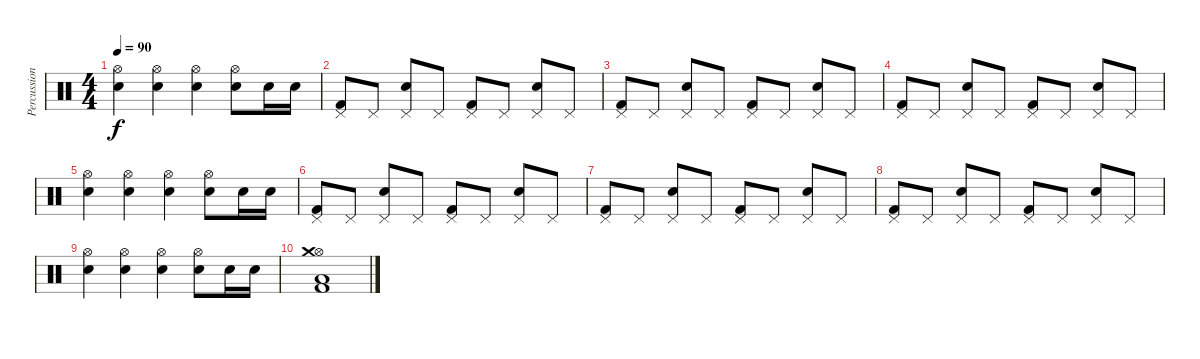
\track ("Percussion" "Percussion") {instrument percussion}
\staff {score}
\articulation defaults
\ts (4 4)
\tempo 90
\clef neutral
\ks c
("Hi-Hat (open)" "Electric Snare (hit)").4{dy f} ("Hi-Hat (open)" "Electric Snare (hit)").4 ("Hi-Hat (open)" "Electric Snare (hit)").4 ("Hi-Hat (open)" "Electric Snare (hit)").8 "Electric Snare (hit)".16 "Electric Snare (hit)".16 |
("Pedal Hi-Hat (hit)" "Kick (hit) 2").8 "Pedal Hi-Hat (hit)".8 ("Pedal Hi-Hat (hit)" "Electric Snare (hit)").8 "Pedal Hi-Hat (hit)".8 ("Pedal Hi-Hat (hit)" "Kick (hit) 2").8 "Pedal Hi-Hat (hit)".8 ("Pedal Hi-Hat (hit)" "Electric Snare (hit)").8 "Pedal Hi-Hat (hit)".8 |
("Pedal Hi-Hat (hit)" "Kick (hit) 2").8 "Pedal Hi-Hat (hit)".8 ("Pedal Hi-Hat (hit)" "Electric Snare (hit)").8 "Pedal Hi-Hat (hit)".8 ("Pedal Hi-Hat (hit)" "Kick (hit) 2").8 "Pedal Hi-Hat (hit)".8 ("Pedal Hi-Hat (hit)" "Electric Snare (hit)").8 "Pedal Hi-Hat (hit)".8 |
("Pedal Hi-Hat (hit)" "Kick (hit) 2").8 "Pedal Hi-Hat (hit)".8 ("Pedal Hi-Hat (hit)" "Electric Snare (hit)").8 "Pedal Hi-Hat (hit)".8 ("Pedal Hi-Hat (hit)" "Kick (hit) 2").8 "Pedal Hi-Hat (hit)".8 ("Pedal Hi-Hat (hit)" "Electric Snare (hit)").8 "Pedal Hi-Hat (hit)".8 |
("Hi-Hat (open)" "Electric Snare (hit)").4 ("Hi-Hat (open)" "Electric Snare (hit)").4 ("Hi-Hat (open)" "Electric Snare (hit)").4 ("Hi-Hat (open)" "Electric Snare (hit)").8 "Electric Snare (hit)".16 "Electric Snare (hit)".16 |
("Pedal Hi-Hat (hit)" "Kick (hit) 2").8 "Pedal Hi-Hat (hit)".8 ("Pedal Hi-Hat (hit)" "Electric Snare (hit)").8 "Pedal Hi-Hat (hit)".8 ("Pedal Hi-Hat (hit)" "Kick (hit) 2").8 "Pedal Hi-Hat (hit)".8 ("Pedal Hi-Hat (hit)" "Electric Snare (hit)").8 "Pedal Hi-Hat (hit)".8 |
("Pedal Hi-Hat (hit)" "Kick (hit) 2").8 "Pedal Hi-Hat (hit)".8 ("Pedal Hi-Hat (hit)" "Electric Snare (hit)").8 "Pedal Hi-Hat (hit)".8 ("Pedal Hi-Hat (hit)" "Kick (hit) 2").8 "Pedal Hi-Hat (hit)".8 ("Pedal Hi-Hat (hit)" "Electric Snare (hit)").8 "Pedal Hi-Hat (hit)".8 |
("Pedal Hi-Hat (hit)" "Kick (hit) 2").8 "Pedal Hi-Hat (hit)".8 ("Pedal Hi-Hat (hit)" "Electric Snare (hit)").8 "Pedal Hi-Hat (hit)".8 ("Pedal Hi-Hat (hit)" "Kick (hit) 2").8 "Pedal Hi-Hat (hit)".8 ("Pedal Hi-Hat (hit)" "Electric Snare (hit)").8 "Pedal Hi-Hat (hit)".8 |
("Hi-Hat (open)" "Electric Snare (hit)").4 ("Hi-Hat (open)" "Electric Snare (hit)").4 ("Hi-Hat (open)" "Electric Snare (hit)").4 ("Hi-Hat (open)" "Electric Snare (hit)").8 "Electric Snare (hit)".16 "Electric Snare (hit)".16 |
("Hi-Hat (open)" "Crash medium (hit)" "Low Tom (hit)" "Kick (hit) 2").1
